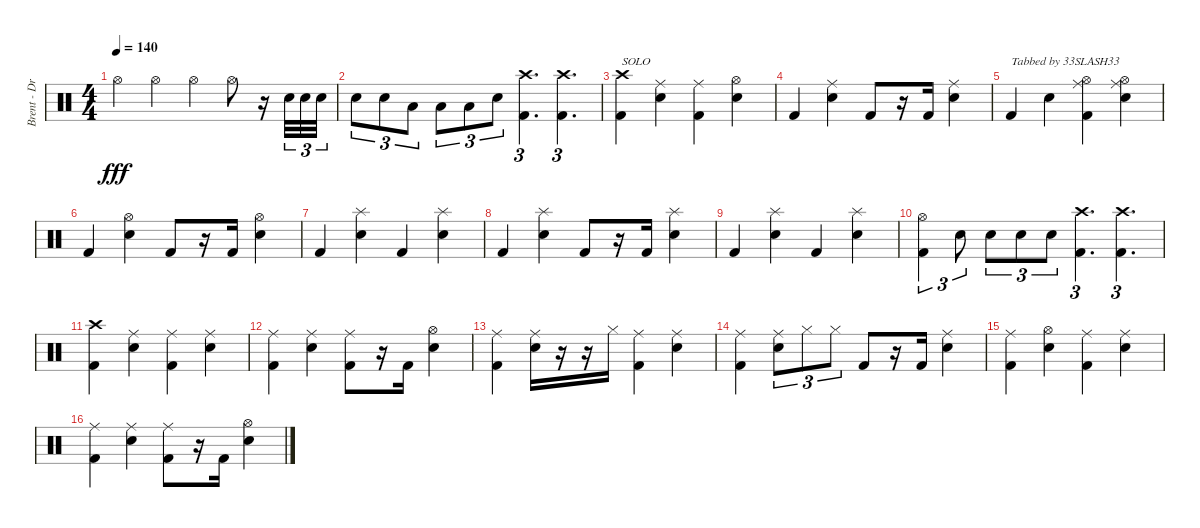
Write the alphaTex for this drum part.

\track ("Brent - Drums" "Brent - Dr") {instrument percussion}
\staff {score}
\articulation defaults
\ts (4 4)
\tempo 140
\clef neutral
\ks c "Hi-Hat (open)".4{dy fff} "Hi-Hat (open)".4 "Hi-Hat (open)".4 "Hi-Hat (open)".8
r.16 "Snare (hit) 2".32{tu (3 2)} "Snare (hit) 2".32{tu (3 2)} "Snare (hit) 2".32{tu (3 2)} |
"Snare (hit) 2".8{tu (3 2)} "Snare (hit) 2".8{tu (3 2)} "Low Tom (hit)".8{tu (3 2)} "Low Tom (hit)".8{tu (3 2)} "Low Tom (hit)".8{tu (3 2)} "Snare (hit) 2".8{tu (3 2)} ("Crash high (hit)" "Kick (hit) 2").4{d tu (3 2)} ("Crash high (hit)" "Kick (hit) 2").4{d tu (3 2)} |
("Crash high (hit)" "Kick (hit) 2").4{txt "SOLO"} ("Ride (middle)" "Snare (hit) 2").4 ("Ride (middle)" "Kick (hit) 2").4 ("Hi-Hat (open)" "Snare (hit) 2").4 |
"Kick (hit) 2".4 ("Ride (middle)" "Snare (hit) 2").4 "Kick (hit) 2".8 r.16 "Kick (hit) 2".16 ("Ride (middle)" "Snare (hit) 2").4 |
"Kick (hit) 2".4{txt "Tabbed by 33SLASH33"} "Snare (hit) 2".4 ("Ride (middle)" "Hi-Hat (open)" "Kick (hit) 2").4 ("Ride (middle)" "Snare (hit) 2" "Hi-Hat (open)").4 |
"Kick (hit) 2".4 ("Hi-Hat (open)" "Snare (hit) 2").4 "Kick (hit) 2".8 r.16 "Kick (hit) 2".16 ("Hi-Hat (open)" "Snare (hit) 2").4 |
"Kick (hit) 2".4 ("Splash (hit)" "Snare (hit) 2").4 "Kick (hit) 2".4 ("Splash (hit)" "Snare (hit) 2").4 |
"Kick (hit) 2".4 ("Splash (hit)" "Snare (hit) 2").4 "Kick (hit) 2".8 r.16 "Kick (hit) 2".16 ("Splash (hit)" "Snare (hit) 2").4 |
"Kick (hit) 2".4 ("Splash (hit)" "Snare (hit) 2").4 "Kick (hit) 2".4 ("Splash (hit)" "Snare (hit) 2").4 |
("Hi-Hat (open)" "Kick (hit) 2").4{tu (3 2)} "Snare (hit) 2".8{tu (3 2)} "Snare (hit) 2".8{tu (3 2)} "Snare (hit) 2".8{tu (3 2)} "Snare (hit) 2".8{tu (3 2)} ("Crash high (hit)" "Kick (hit) 2").4{d tu (3 2)} ("Crash high (hit)" "Kick (hit) 2").4{d tu (3 2)} |
("Crash high (hit)" "Kick (hit) 2").4 ("Ride (middle)" "Snare (hit) 2").4 ("Ride (middle)" "Kick (hit) 2").4 ("Ride (middle)" "Snare (hit) 2").4 |
("Ride (middle)" "Kick (hit) 2").4 ("Ride (middle)" "Snare (hit) 2").4 ("Ride (middle)" "Kick (hit) 2").8 r.16 "Kick (hit) 2".16 ("Hi-Hat (open)" "Snare (hit) 2").4 |
("Ride (middle)" "Kick (hit) 2").4 ("Ride (middle)" "Snare (hit) 2").16 r.16 r.16 "Hi-Hat (closed)".16 ("Ride (middle)" "Kick (hit) 2").4 ("Ride (middle)" "Snare (hit) 2").4 |
("Ride (middle)" "Kick (hit) 2").4 ("Ride (middle)" "Snare (hit) 2").8{tu (3 2)} "Hi-Hat (closed)".8{tu (3 2)} "Hi-Hat (closed)".8{tu (3 2)} "Kick (hit) 2".8 r.16 "Kick (hit) 2".16 ("Ride (middle)" "Snare (hit) 2").4 |
("Ride (middle)" "Kick (hit) 2").4 ("Hi-Hat (open)" "Snare (hit) 2").4 ("Ride (middle)" "Kick (hit) 2").4 ("Ride (middle)" "Snare (hit) 2").4 |
("Ride (middle)" "Kick (hit) 2").4 ("Ride (middle)" "Snare (hit) 2").4 ("Ride (middle)" "Kick (hit) 2").8 r.16 "Kick (hit) 2".16 ("Hi-Hat (open)" "Snare (hit) 2").4
